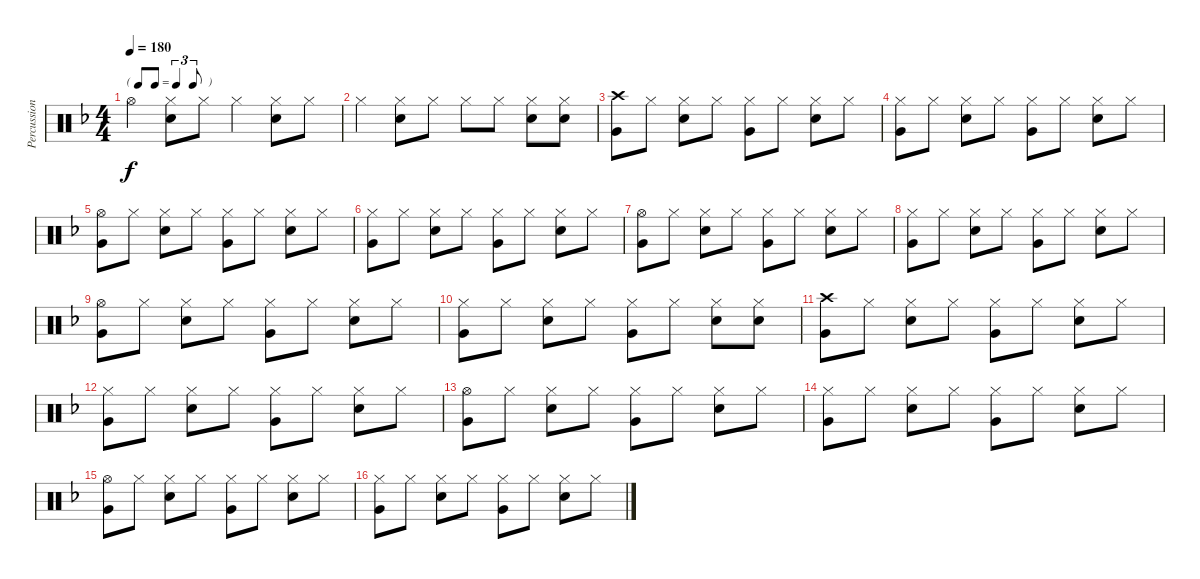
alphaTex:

\track ("Percussion" "Percussion") {instrument percussion}
\staff {score}
\articulation defaults
\ts (4 4)
\tf triplet8th
\tempo 180
\clef neutral
\ks f "Hi-Hat (open)".4{dy f}
("Hi-Hat (closed)" "Snare (hit) 2").8 "Hi-Hat (closed)".8 "Hi-Hat (closed)".4 ("Hi-Hat (closed)" "Snare (hit) 2").8 "Hi-Hat (closed)".8 |
"Hi-Hat (closed)".4 ("Hi-Hat (closed)" "Snare (hit) 2").8 "Hi-Hat (closed)".8 "Hi-Hat (closed)".8 "Hi-Hat (closed)".8 ("Hi-Hat (closed)" "Snare (hit) 2").8 ("Hi-Hat (closed)" "Snare (hit) 2").8 |
("Crash high (hit)" "Very Low Tom (hit)").8 "Hi-Hat (closed)".8 ("Hi-Hat (closed)" "Snare (hit) 2").8 "Hi-Hat (closed)".8 ("Hi-Hat (closed)" "Very Low Tom (hit)").8 "Hi-Hat (closed)".8 ("Hi-Hat (closed)" "Snare (hit) 2").8 "Hi-Hat (closed)".8 |
("Hi-Hat (closed)" "Very Low Tom (hit)").8 "Hi-Hat (closed)".8 ("Hi-Hat (closed)" "Snare (hit) 2").8 "Hi-Hat (closed)".8 ("Hi-Hat (closed)" "Very Low Tom (hit)").8 "Hi-Hat (closed)".8 ("Hi-Hat (closed)" "Snare (hit) 2").8 "Hi-Hat (closed)".8 |
("Hi-Hat (open)" "Very Low Tom (hit)").8 "Hi-Hat (closed)".8 ("Hi-Hat (closed)" "Snare (hit) 2").8 "Hi-Hat (closed)".8 ("Hi-Hat (closed)" "Very Low Tom (hit)").8 "Hi-Hat (closed)".8 ("Hi-Hat (closed)" "Snare (hit) 2").8 "Hi-Hat (closed)".8 |
("Hi-Hat (closed)" "Very Low Tom (hit)").8 "Hi-Hat (closed)".8 ("Hi-Hat (closed)" "Snare (hit) 2").8 "Hi-Hat (closed)".8 ("Hi-Hat (closed)" "Very Low Tom (hit)").8 "Hi-Hat (closed)".8 ("Hi-Hat (closed)" "Snare (hit) 2").8 "Hi-Hat (closed)".8 |
("Hi-Hat (open)" "Very Low Tom (hit)").8 "Hi-Hat (closed)".8 ("Hi-Hat (closed)" "Snare (hit) 2").8 "Hi-Hat (closed)".8 ("Hi-Hat (closed)" "Very Low Tom (hit)").8 "Hi-Hat (closed)".8 ("Hi-Hat (closed)" "Snare (hit) 2").8 "Hi-Hat (closed)".8 |
("Hi-Hat (closed)" "Very Low Tom (hit)").8 "Hi-Hat (closed)".8 ("Hi-Hat (closed)" "Snare (hit) 2").8 "Hi-Hat (closed)".8 ("Hi-Hat (closed)" "Very Low Tom (hit)").8 "Hi-Hat (closed)".8 ("Hi-Hat (closed)" "Snare (hit) 2").8 "Hi-Hat (closed)".8 |
("Hi-Hat (open)" "Very Low Tom (hit)").8 "Hi-Hat (closed)".8 ("Hi-Hat (closed)" "Snare (hit) 2").8 "Hi-Hat (closed)".8 ("Hi-Hat (closed)" "Very Low Tom (hit)").8 "Hi-Hat (closed)".8 ("Hi-Hat (closed)" "Snare (hit) 2").8 "Hi-Hat (closed)".8 |
("Hi-Hat (closed)" "Very Low Tom (hit)").8 "Hi-Hat (closed)".8 ("Hi-Hat (closed)" "Snare (hit) 2").8 "Hi-Hat (closed)".8 ("Hi-Hat (closed)" "Very Low Tom (hit)").8 "Hi-Hat (closed)".8 ("Hi-Hat (closed)" "Snare (hit) 2").8 ("Hi-Hat (closed)" "Snare (hit) 2").8 |
("Crash high (hit)" "Very Low Tom (hit)").8 "Hi-Hat (closed)".8 ("Hi-Hat (closed)" "Snare (hit) 2").8 "Hi-Hat (closed)".8 ("Hi-Hat (closed)" "Very Low Tom (hit)").8 "Hi-Hat (closed)".8 ("Hi-Hat (closed)" "Snare (hit) 2").8 "Hi-Hat (closed)".8 |
("Hi-Hat (closed)" "Very Low Tom (hit)").8 "Hi-Hat (closed)".8 ("Hi-Hat (closed)" "Snare (hit) 2").8 "Hi-Hat (closed)".8 ("Hi-Hat (closed)" "Very Low Tom (hit)").8 "Hi-Hat (closed)".8 ("Hi-Hat (closed)" "Snare (hit) 2").8 "Hi-Hat (closed)".8 |
("Hi-Hat (open)" "Very Low Tom (hit)").8 "Hi-Hat (closed)".8 ("Hi-Hat (closed)" "Snare (hit) 2").8 "Hi-Hat (closed)".8 ("Hi-Hat (closed)" "Very Low Tom (hit)").8 "Hi-Hat (closed)".8 ("Hi-Hat (closed)" "Snare (hit) 2").8 "Hi-Hat (closed)".8 |
("Hi-Hat (closed)" "Very Low Tom (hit)").8 "Hi-Hat (closed)".8 ("Hi-Hat (closed)" "Snare (hit) 2").8 "Hi-Hat (closed)".8 ("Hi-Hat (closed)" "Very Low Tom (hit)").8 "Hi-Hat (closed)".8 ("Hi-Hat (closed)" "Snare (hit) 2").8 "Hi-Hat (closed)".8 |
("Hi-Hat (open)" "Very Low Tom (hit)").8 "Hi-Hat (closed)".8 ("Hi-Hat (closed)" "Snare (hit) 2").8 "Hi-Hat (closed)".8 ("Hi-Hat (closed)" "Very Low Tom (hit)").8 "Hi-Hat (closed)".8 ("Hi-Hat (closed)" "Snare (hit) 2").8 "Hi-Hat (closed)".8 |
("Hi-Hat (closed)" "Very Low Tom (hit)").8 "Hi-Hat (closed)".8 ("Hi-Hat (closed)" "Snare (hit) 2").8 "Hi-Hat (closed)".8 ("Hi-Hat (closed)" "Very Low Tom (hit)").8 "Hi-Hat (closed)".8 ("Hi-Hat (closed)" "Snare (hit) 2").8 "Hi-Hat (closed)".8
